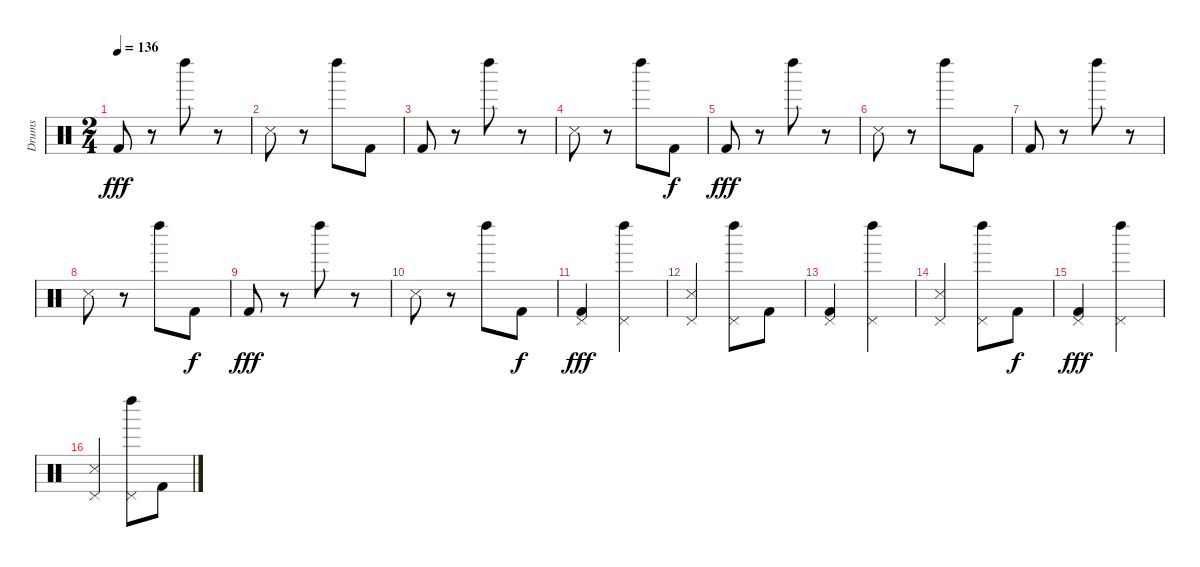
\track ("Drums" "Drums") {instrument percussion}
\staff {score}
\articulation defaults
\ts (2 4)
\tempo 136
\clef neutral
\ks c "Kick (hit) 2".8{dy fff}
r.8 "Left Maraca (hit)".8 r.8 |
"Snare (side stick) 3".8 r.8 "Left Maraca (hit)".8 "Kick (hit) 2".8 |
"Kick (hit) 2".8 r.8 "Left Maraca (hit)".8 r.8 |
"Snare (side stick) 3".8 r.8 "Left Maraca (hit)".8 "Kick (hit) 2".8{dy f} |
"Kick (hit) 2".8{dy fff} r.8 "Left Maraca (hit)".8 r.8 |
"Snare (side stick) 3".8 r.8 "Left Maraca (hit)".8 "Kick (hit) 2".8 |
"Kick (hit) 2".8 r.8 "Left Maraca (hit)".8 r.8 |
"Snare (side stick) 3".8 r.8 "Left Maraca (hit)".8 "Kick (hit) 2".8{dy f} |
"Kick (hit) 2".8{dy fff} r.8 "Left Maraca (hit)".8 r.8 |
"Snare (side stick) 3".8 r.8 "Left Maraca (hit)".8 "Kick (hit) 2".8{dy f} |
("Pedal Hi-Hat (hit)" "Kick (hit) 2").4{dy fff} ("Pedal Hi-Hat (hit)" "Left Maraca (hit)").4 |
("Pedal Hi-Hat (hit)" "Snare (side stick) 3").4 ("Pedal Hi-Hat (hit)" "Left Maraca (hit)").8 "Kick (hit) 2".8 |
("Pedal Hi-Hat (hit)" "Kick (hit) 2").4 ("Pedal Hi-Hat (hit)" "Left Maraca (hit)").4 |
("Pedal Hi-Hat (hit)" "Snare (side stick) 3").4 ("Pedal Hi-Hat (hit)" "Left Maraca (hit)").8 "Kick (hit) 2".8{dy f} |
("Pedal Hi-Hat (hit)" "Kick (hit) 2").4{dy fff} ("Pedal Hi-Hat (hit)" "Left Maraca (hit)").4 |
("Pedal Hi-Hat (hit)" "Snare (side stick) 3").4 ("Pedal Hi-Hat (hit)" "Left Maraca (hit)").8 "Kick (hit) 2".8
